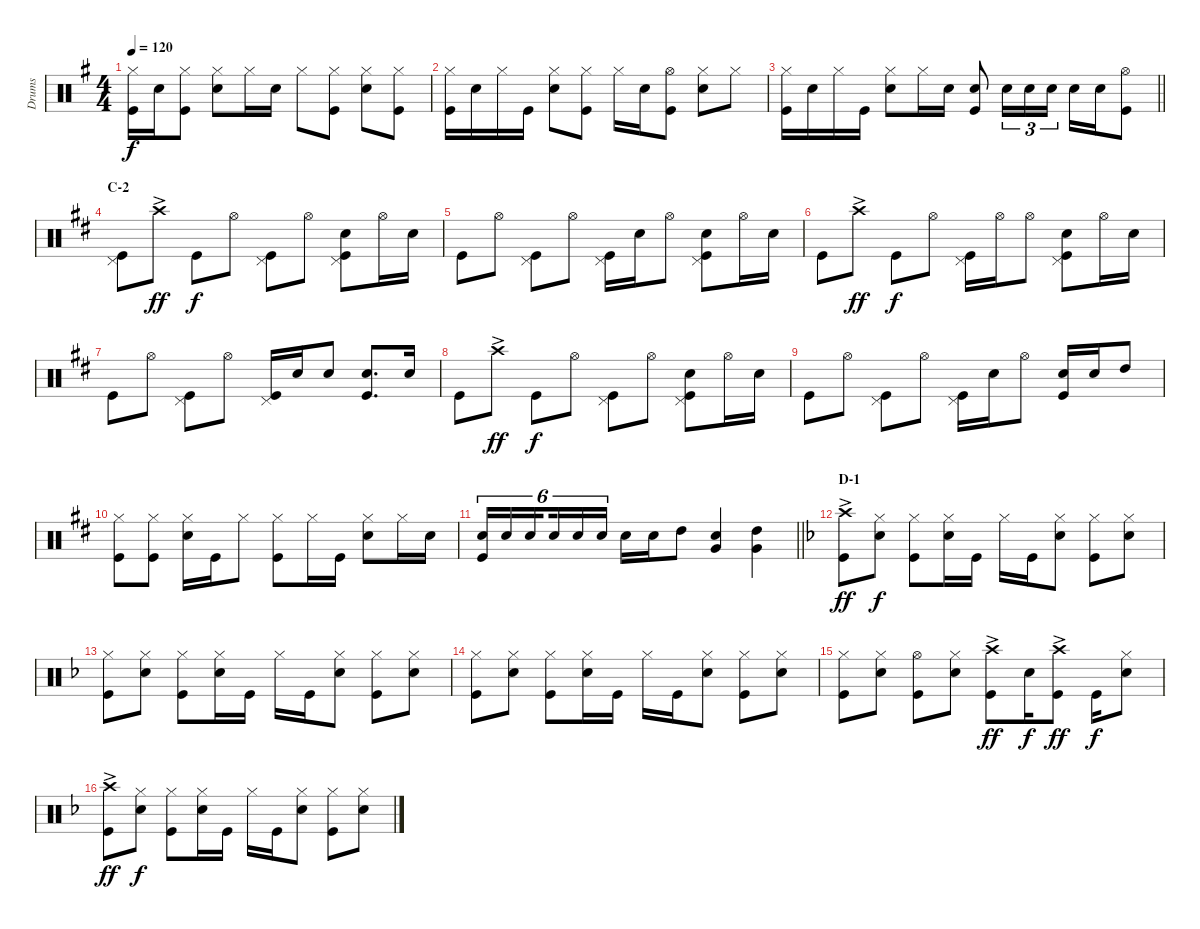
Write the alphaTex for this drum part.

\track ("Drums" "Drums") {instrument percussion}
\staff {score}
\articulation defaults
\ts (4 4)
\tempo 120
\clef neutral
\ks g
("Hi-Hat (closed)" "Kick (hit)").16{dy f} "Snare (hit) 2".16 ("Hi-Hat (closed)" "Kick (hit)").8 ("Hi-Hat (closed)" "Snare (hit) 2").8 "Hi-Hat (closed)".16 "Snare (hit) 2".16 "Hi-Hat (closed)".8 ("Hi-Hat (closed)" "Kick (hit)").8 ("Hi-Hat (closed)" "Snare (hit) 2").8 ("Hi-Hat (closed)" "Kick (hit)").8 |
("Hi-Hat (closed)" "Kick (hit)").16 "Snare (hit) 2".16 "Hi-Hat (closed)".16 "Kick (hit)".16 ("Hi-Hat (closed)" "Snare (hit) 2").8 ("Hi-Hat (closed)" "Kick (hit)").8 "Hi-Hat (closed)".16 "Snare (hit) 2".16 ("Hi-Hat (open)" "Kick (hit)").8 ("Hi-Hat (closed)" "Snare (hit) 2").8 "Hi-Hat (closed)".8 |
\barLineRight lightlight
("Hi-Hat (closed)" "Kick (hit)").16 "Snare (hit) 2".16 "Hi-Hat (closed)".16 "Kick (hit)".16 ("Hi-Hat (closed)" "Snare (hit) 2").8 "Hi-Hat (closed)".16 "Snare (hit) 2".16 ("Snare (hit) 2" "Kick (hit)").8 "Snare (hit) 2".16{tu (3 2)} "Snare (hit) 2".16{tu (3 2)} "Snare (hit) 2".16{tu (3 2)} "Snare (hit) 2".16 "Snare (hit) 2".16 ("Hi-Hat (open)" "Kick (hit)").8 |
\section ("" "C-2")
\ks d
("Pedal Hi-Hat (hit)" "Kick (hit)").8 "Crash high (hit)"{ac}.8{dy ff} "Kick (hit)".8{dy f} "Hi-Hat (open)".8 ("Pedal Hi-Hat (hit)" "Kick (hit)").8 "Hi-Hat (open)".8 ("Snare (hit) 2" "Kick (hit)" "Pedal Hi-Hat (hit)").8 "Hi-Hat (open)".16 "Snare (hit) 2".16 |
"Kick (hit)".8 "Hi-Hat (open)".8 ("Pedal Hi-Hat (hit)" "Kick (hit)").8 "Hi-Hat (open)".8 ("Pedal Hi-Hat (hit)" "Kick (hit)").16 "Snare (hit) 2".16 "Hi-Hat (open)".8 ("Pedal Hi-Hat (hit)" "Snare (hit) 2" "Kick (hit)").8 "Hi-Hat (open)".16 "Snare (hit) 2".16 |
"Kick (hit)".8 "Crash high (hit)"{ac}.8{dy ff} "Kick (hit)".8{dy f} "Hi-Hat (open)".8 ("Pedal Hi-Hat (hit)" "Kick (hit)").16 "Hi-Hat (open)".16 "Hi-Hat (open)".8 ("Kick (hit)" "Pedal Hi-Hat (hit)" "Snare (hit) 2").8 "Hi-Hat (open)".16 "Snare (hit) 2".16 |
"Kick (hit)".8 "Hi-Hat (open)".8 ("Pedal Hi-Hat (hit)" "Kick (hit)").8 "Hi-Hat (open)".8 ("Pedal Hi-Hat (hit)" "Kick (hit)").16 "Snare (hit) 2".16 "Snare (hit) 2".8 ("Kick (hit)" "Snare (hit) 2").8{d} "Snare (hit) 2".16 |
"Kick (hit)".8 "Crash high (hit)"{ac}.8{dy ff} "Kick (hit)".8{dy f} "Hi-Hat (open)".8 ("Pedal Hi-Hat (hit)" "Kick (hit)").8 "Hi-Hat (open)".8 ("Pedal Hi-Hat (hit)" "Kick (hit)" "Snare (hit) 2").8 "Hi-Hat (open)".16 "Snare (hit) 2".16 |
"Kick (hit)".8 "Hi-Hat (open)".8 ("Pedal Hi-Hat (hit)" "Kick (hit)").8 "Hi-Hat (open)".8 ("Pedal Hi-Hat (hit)" "Kick (hit)").16 "Snare (hit) 2".16 "Hi-Hat (open)".8 ("Kick (hit)" "Snare (hit) 2").16 "Snare (hit) 2".16 "High Tom (hit)".8 |
("Hi-Hat (closed)" "Kick (hit)").8 ("Hi-Hat (closed)" "Kick (hit)").8 ("Hi-Hat (closed)" "Snare (hit) 2").16 "Kick (hit)".16 "Hi-Hat (closed)".8 ("Hi-Hat (closed)" "Kick (hit)").8 "Hi-Hat (closed)".16 "Kick (hit)".16 ("Hi-Hat (closed)" "Snare (hit) 2").8 "Hi-Hat (closed)".16 "Snare (hit) 2".16 |
\barLineRight lightlight
("Kick (hit)" "Snare (hit) 2").16{tu (6 4)} "Snare (hit) 2".16{tu (6 4)} "Snare (hit) 2".16{tu (6 4) beam splitsecondary} "Snare (hit) 2".16{tu (6 4)} "Snare (hit) 2".16{tu (6 4)} "Snare (hit) 2".16{tu (6 4)} "Snare (hit) 2".16 "Snare (hit) 2".16 "High Tom (hit)".8 ("Snare (hit) 2" "Very Low Tom (hit)").4 ("High Tom (hit)" "Very Low Tom (hit)").4 |
\section ("" "D-1")
\ks f
("Crash high (hit)"{ac} "Kick (hit)").8{dy ff} ("Hi-Hat (closed)" "Snare (hit) 2").8{dy f} ("Hi-Hat (closed)" "Kick (hit)").8 ("Hi-Hat (closed)" "Snare (hit) 2").16 "Kick (hit)".16 "Hi-Hat (closed)".16 "Kick (hit)".16 ("Hi-Hat (closed)" "Snare (hit) 2").8 ("Hi-Hat (closed)" "Kick (hit)").8 ("Hi-Hat (closed)" "Snare (hit) 2").8 |
("Hi-Hat (closed)" "Kick (hit)").8 ("Hi-Hat (closed)" "Snare (hit) 2").8 ("Hi-Hat (closed)" "Kick (hit)").8 ("Hi-Hat (closed)" "Snare (hit) 2").16 "Kick (hit)".16 "Hi-Hat (closed)".16 "Kick (hit)".16 ("Snare (hit) 2" "Hi-Hat (closed)").8 ("Hi-Hat (closed)" "Kick (hit)").8 ("Hi-Hat (closed)" "Snare (hit) 2").8 |
("Hi-Hat (closed)" "Kick (hit)").8 ("Hi-Hat (closed)" "Snare (hit) 2").8 ("Hi-Hat (closed)" "Kick (hit)").8 ("Hi-Hat (closed)" "Snare (hit) 2").16 "Kick (hit)".16 "Hi-Hat (closed)".16 "Kick (hit)".16 ("Snare (hit) 2" "Hi-Hat (closed)").8 ("Hi-Hat (closed)" "Kick (hit)").8 ("Hi-Hat (closed)" "Snare (hit) 2").8 |
("Hi-Hat (closed)" "Kick (hit)").8 ("Hi-Hat (closed)" "Snare (hit) 2").8 ("Hi-Hat (open)" "Kick (hit)").8 ("Hi-Hat (closed)" "Snare (hit) 2").8 ("Crash high (hit)"{ac} "Kick (hit)").8{dy ff} "Snare (hit) 2".16{dy f} ("Crash high (hit)"{ac} "Kick (hit)").8{dy ff} "Kick (hit)".16{dy f} ("Hi-Hat (closed)" "Snare (hit) 2").8 |
("Crash high (hit)"{ac} "Kick (hit)").8{dy ff} ("Hi-Hat (closed)" "Snare (hit) 2").8{dy f} ("Hi-Hat (closed)" "Kick (hit)").8 ("Hi-Hat (closed)" "Snare (hit) 2").16 "Kick (hit)".16 "Hi-Hat (closed)".16 "Kick (hit)".16 ("Hi-Hat (closed)" "Snare (hit) 2").8 ("Hi-Hat (closed)" "Kick (hit)").8 ("Hi-Hat (closed)" "Snare (hit) 2").8
